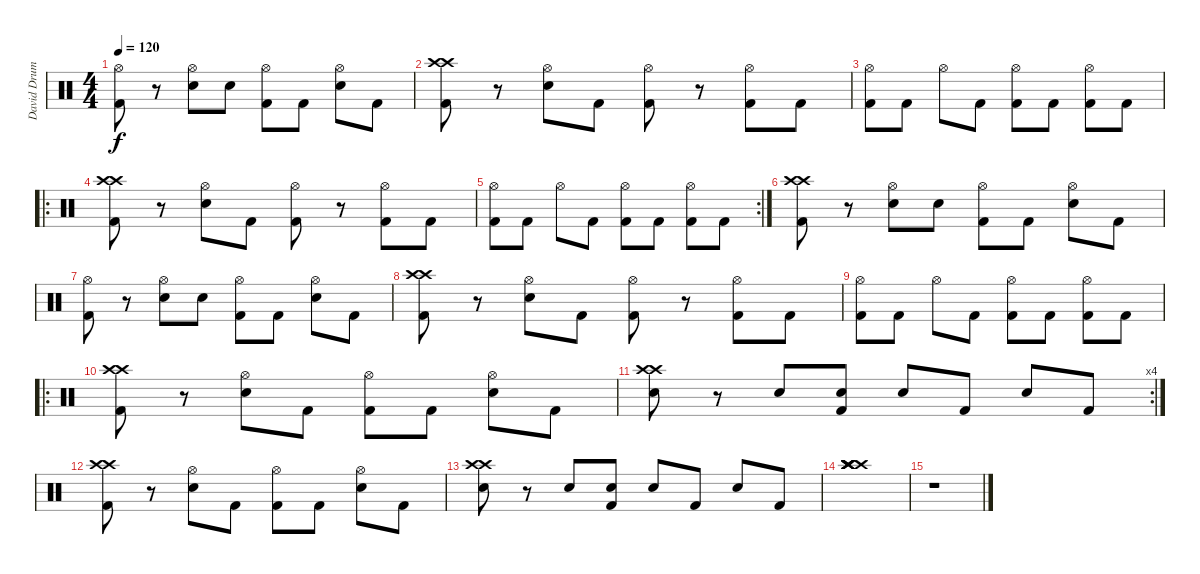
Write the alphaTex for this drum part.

\track ("David Drums" "David Drum") {instrument percussion}
\staff {score}
\articulation defaults
\ts (4 4)
\tempo 120
\clef neutral
\ks c
("Hi-Hat (open)" "Kick (hit) 2").8{dy f} r.8 ("Hi-Hat (open)" "Snare (hit) 2").8 "Snare (hit) 2".8 ("Hi-Hat (open)" "Kick (hit) 2").8 "Kick (hit) 2".8 ("Hi-Hat (open)" "Snare (hit) 2").8 "Kick (hit) 2".8 |
("Crash high (hit)" "Crash high (hit)" "Kick (hit) 2").8 r.8 ("Hi-Hat (open)" "Snare (hit) 2").8 "Kick (hit) 2".8 ("Hi-Hat (open)" "Kick (hit) 2").8 r.8 ("Hi-Hat (open)" "Kick (hit) 2").8 "Kick (hit) 2".8 |
("Hi-Hat (open)" "Kick (hit) 2").8 "Kick (hit) 2".8 "Hi-Hat (open)".8 "Kick (hit) 2".8 ("Hi-Hat (open)" "Kick (hit) 2").8 "Kick (hit) 2".8 ("Hi-Hat (open)" "Kick (hit) 2").8 "Kick (hit) 2".8 |
\ro
("Crash high (hit)" "Crash high (hit)" "Kick (hit) 2").8 r.8 ("Hi-Hat (open)" "Snare (hit) 2").8 "Kick (hit) 2".8 ("Hi-Hat (open)" "Kick (hit) 2").8 r.8 ("Hi-Hat (open)" "Kick (hit) 2").8 "Kick (hit) 2".8 |
\rc 2
("Hi-Hat (open)" "Kick (hit) 2").8 "Kick (hit) 2".8 "Hi-Hat (open)".8 "Kick (hit) 2".8 ("Hi-Hat (open)" "Kick (hit) 2").8 "Kick (hit) 2".8 ("Hi-Hat (open)" "Kick (hit) 2").8 "Kick (hit) 2".8 |
("Crash high (hit)" "Crash high (hit)" "Kick (hit) 2").8 r.8 ("Hi-Hat (open)" "Snare (hit) 2").8 "Snare (hit) 2".8 ("Hi-Hat (open)" "Kick (hit) 2").8 "Kick (hit) 2".8 ("Hi-Hat (open)" "Snare (hit) 2").8 "Kick (hit) 2".8 |
("Hi-Hat (open)" "Kick (hit) 2").8 r.8 ("Hi-Hat (open)" "Snare (hit) 2").8 "Snare (hit) 2".8 ("Hi-Hat (open)" "Kick (hit) 2").8 "Kick (hit) 2".8 ("Hi-Hat (open)" "Snare (hit) 2").8 "Kick (hit) 2".8 |
("Crash high (hit)" "Crash high (hit)" "Kick (hit) 2").8 r.8 ("Hi-Hat (open)" "Snare (hit) 2").8 "Kick (hit) 2".8 ("Hi-Hat (open)" "Kick (hit) 2").8 r.8 ("Hi-Hat (open)" "Kick (hit) 2").8 "Kick (hit) 2".8 |
("Hi-Hat (open)" "Kick (hit) 2").8 "Kick (hit) 2".8 "Hi-Hat (open)".8 "Kick (hit) 2".8 ("Hi-Hat (open)" "Kick (hit) 2").8 "Kick (hit) 2".8 ("Hi-Hat (open)" "Kick (hit) 2").8 "Kick (hit) 2".8 |
\ro
("Crash high (hit)" "Crash high (hit)" "Kick (hit) 2").8 r.8 ("Hi-Hat (open)" "Snare (hit) 2").8 "Kick (hit) 2".8 ("Hi-Hat (open)" "Kick (hit) 2").8 "Kick (hit) 2".8 ("Hi-Hat (open)" "Snare (hit) 2").8 "Kick (hit) 2".8 |
\rc 4
("Crash high (hit)" "Crash high (hit)" "Snare (hit) 2").8 r.8 "Snare (hit) 2".8 ("Snare (hit) 2" "Kick (hit) 2").8 "Snare (hit) 2".8 "Kick (hit) 2".8 "Snare (hit) 2".8 "Kick (hit) 2".8 |
("Crash high (hit)" "Crash high (hit)" "Kick (hit) 2").8 r.8 ("Hi-Hat (open)" "Snare (hit) 2").8 "Kick (hit) 2".8 ("Hi-Hat (open)" "Kick (hit) 2").8 "Kick (hit) 2".8 ("Hi-Hat (open)" "Snare (hit) 2").8 "Kick (hit) 2".8 |
("Crash high (hit)" "Crash high (hit)" "Snare (hit) 2").8 r.8 "Snare (hit) 2".8 ("Snare (hit) 2" "Kick (hit) 2").8 "Snare (hit) 2".8 "Kick (hit) 2".8 "Snare (hit) 2".8 "Kick (hit) 2".8 |
("Crash high (hit)" "Crash high (hit)" "Crash high (hit)" "Crash high (hit)" "Crash high (hit)" "Crash high (hit)").1 |
r.1
